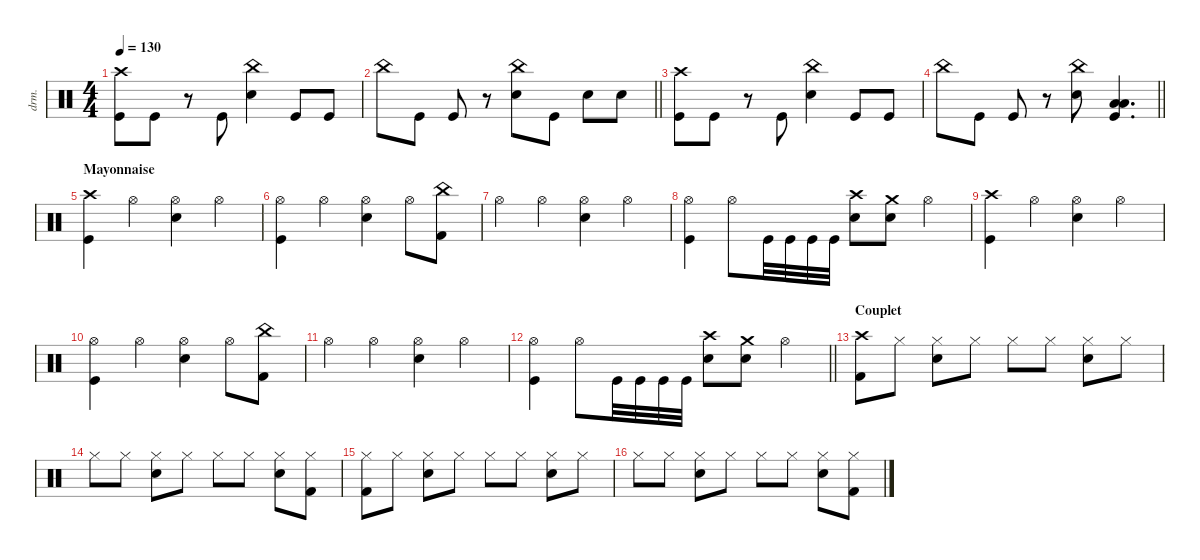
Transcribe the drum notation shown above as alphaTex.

\defaultSystemsLayout 4
\hideDynamics
\bracketExtendMode nobrackets
\otherSystemsTrackNameOrientation horizontal
\track ("Manouche" "drm.") {instrument percussion}
\staff {score}
\articulation defaults
\ts (4 4)
\tempo 130
\clef neutral
\ks c
("Crash high (hit)" "Kick (hit)").8{dy f beam Down} "Kick (hit)".8{beam Down} r.8{beam Down} "Kick (hit)".8{beam Up} ("China (hit)" "Snare (hit) 2").4{beam Down} "Kick (hit)".8{beam Up} "Kick (hit)".8{beam Up} |
\barLineRight lightlight "China (hit)".8{beam Down} "Kick (hit)".8{beam Down} "Kick (hit)".8{beam Up}
r.8{beam Up} ("China (hit)" "Snare (hit) 2").8{beam Down} "Kick (hit)".8{beam Down} "Snare (hit) 2".8{beam Down} "Snare (hit) 2".8{beam Down} |
("Crash high (hit)" "Kick (hit)").8{beam Down} "Kick (hit)".8{beam Down} r.8{beam Down} "Kick (hit)".8{beam Up} ("China (hit)" "Snare (hit) 2").4{beam Down} "Kick (hit)".8{beam Up} "Kick (hit)".8{beam Up} |
\barLineRight lightlight "China (hit)".8{beam Down} "Kick (hit)".8{beam Down} "Kick (hit)".8{beam Up}
r.8{beam Up} ("China (hit)" "Snare (hit) 2").8{beam Down} ("Low Tom (hit)" "Kick (hit)" "Low Floor Tom (hit)").4{d dy ff beam Up} |
\section ("" "Mayonnaise")
("Crash high (hit)" "Kick (hit)").4{dy f beam Down} "Hi-Hat (open)".4{beam Down} ("Hi-Hat (open)" "Snare (hit) 2").4{beam Down} "Hi-Hat (open)".4{beam Down} |
("Hi-Hat (open)" "Kick (hit)").4{beam Down} "Hi-Hat (open)".4{beam Down} ("Hi-Hat (open)" "Snare (hit) 2").4{beam Down} "Hi-Hat (open)".8{beam Down} ("China (hit)" "Kick (hit) 2").8{beam Down} |
"Hi-Hat (open)".4{beam Down} "Hi-Hat (open)".4{beam Down} ("Hi-Hat (open)" "Snare (hit) 2").4{beam Down} "Hi-Hat (open)".4{beam Down} |
("Hi-Hat (open)" "Kick (hit)").4{beam Down} "Hi-Hat (open)".8{beam Down} "Kick (hit)".32{beam Down} "Kick (hit)".32{beam Down} "Kick (hit)".32{beam Down} "Kick (hit)".32{beam Down} ("Snare (hit) 2" "Crash high (hit)").8{beam Down} ("Crash medium (hit)" "Snare (hit) 2").8{beam Down} "Hi-Hat (open)".4{beam Down} |
("Crash high (hit)" "Kick (hit)").4{beam Down} "Hi-Hat (open)".4{beam Down} ("Hi-Hat (open)" "Snare (hit) 2").4{beam Down} "Hi-Hat (open)".4{beam Down} |
("Hi-Hat (open)" "Kick (hit)").4{beam Down} "Hi-Hat (open)".4{beam Down} ("Hi-Hat (open)" "Snare (hit) 2").4{beam Down} "Hi-Hat (open)".8{beam Down} ("China (hit)" "Kick (hit) 2").8{beam Down} |
"Hi-Hat (open)".4{beam Down} "Hi-Hat (open)".4{beam Down} ("Hi-Hat (open)" "Snare (hit) 2").4{beam Down} "Hi-Hat (open)".4{beam Down} |
\barLineRight lightlight
("Hi-Hat (open)" "Kick (hit)").4{beam Down} "Hi-Hat (open)".8{beam Down} "Kick (hit)".32{beam Down} "Kick (hit)".32{beam Down} "Kick (hit)".32{beam Down} "Kick (hit)".32{beam Down} ("Snare (hit) 2" "Crash high (hit)").8{beam Down} ("Crash medium (hit)" "Snare (hit) 2").8{beam Down} "Hi-Hat (open)".4{beam Down} |
\section ("" "Couplet")
("Crash high (hit)" "Kick (hit) 2").8{beam Down} "Hi-Hat (closed)".8{dy mp beam Down} ("Hi-Hat (closed)" "Snare (hit) 2").8{dy f beam Down} "Hi-Hat (closed)".8{dy mp beam Down} "Hi-Hat (closed)".8{dy f beam Down} "Hi-Hat (closed)".8{dy mp beam Down} ("Hi-Hat (closed)" "Snare (hit) 2").8{dy f beam Down} "Hi-Hat (closed)".8{dy mp beam Down} |
"Hi-Hat (closed)".8{dy f beam Down} "Hi-Hat (closed)".8{dy mp beam Down} ("Hi-Hat (closed)" "Snare (hit) 2").8{dy f beam Down} "Hi-Hat (closed)".8{dy mp beam Down} "Hi-Hat (closed)".8{dy f beam Down} "Hi-Hat (closed)".8{dy mp beam Down} ("Hi-Hat (closed)" "Snare (hit) 2").8{dy f beam Down} ("Hi-Hat (closed)" "Kick (hit) 2").8{dy mp beam Down} |
("Hi-Hat (closed)" "Kick (hit) 2").8{beam Down} "Hi-Hat (closed)".8{beam Down} ("Hi-Hat (closed)" "Snare (hit) 2").8{dy f beam Down} "Hi-Hat (closed)".8{dy mp beam Down} "Hi-Hat (closed)".8{dy f beam Down} "Hi-Hat (closed)".8{dy mp beam Down} ("Hi-Hat (closed)" "Snare (hit) 2").8{dy f beam Down} "Hi-Hat (closed)".8{dy mp beam Down} |
"Hi-Hat (closed)".8{dy f beam Down} "Hi-Hat (closed)".8{dy mp beam Down} ("Hi-Hat (closed)" "Snare (hit) 2").8{dy f beam Down} "Hi-Hat (closed)".8{dy mp beam Down} "Hi-Hat (closed)".8{dy f beam Down} "Hi-Hat (closed)".8{dy mp beam Down} ("Hi-Hat (closed)" "Snare (hit) 2").8{dy f beam Down} ("Hi-Hat (closed)" "Kick (hit) 2").8{dy mp beam Down}
